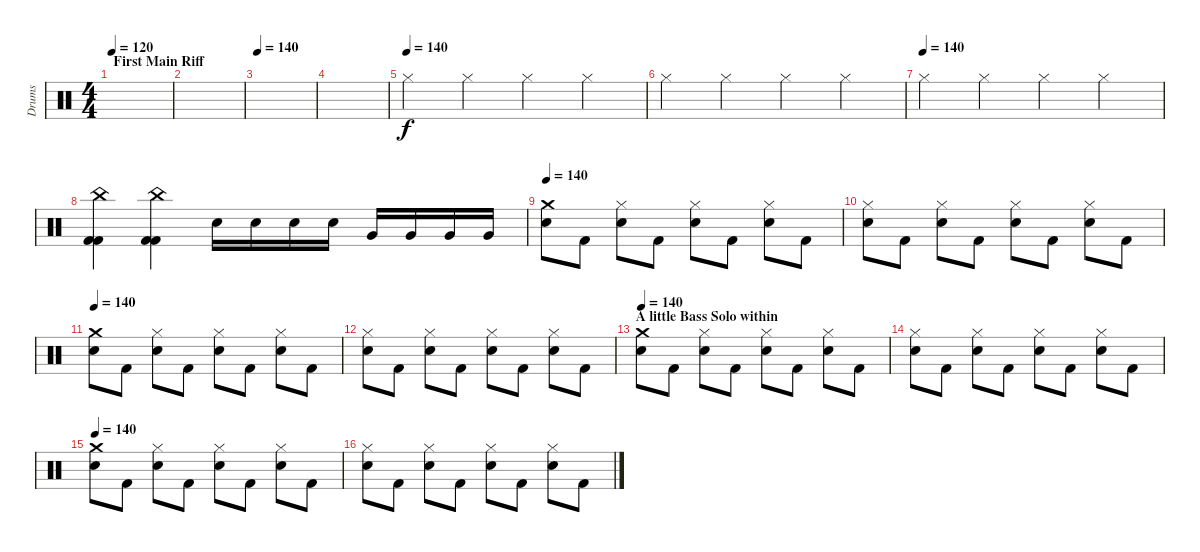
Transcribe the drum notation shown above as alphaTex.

\track ("Drums" "Drums") {instrument percussion}
\staff {score}
\articulation defaults
\ts (4 4)
\section ("" "First Main Riff ")
\tempo 120
\tempo 140
\tempo 120
\clef neutral
\ks c
|
|
\tempo 140
|
|
\tempo (140)
"Hi-Hat (closed)".4 "Hi-Hat (closed)".4 "Hi-Hat (closed)".4 "Hi-Hat (closed)".4 |
"Hi-Hat (closed)".4 "Hi-Hat (closed)".4 "Hi-Hat (closed)".4 "Hi-Hat (closed)".4 |
\tempo (140)
"Hi-Hat (closed)".4 "Hi-Hat (closed)".4 "Hi-Hat (closed)".4 "Hi-Hat (closed)".4 |
("China (hit)" "Kick (hit) 2" "Kick (hit) 2").4 ("Kick (hit) 2" "Kick (hit) 2" "China (hit)").4 "Electric Snare (hit)".16 "Electric Snare (hit)".16 "Electric Snare (hit)".16 "Electric Snare (hit)".16 "Very Low Tom (hit)".16 "Very Low Tom (hit)".16 "Very Low Tom (hit)".16 "Very Low Tom (hit)".16 |
\tempo 140
("Crash medium (hit)" "Electric Snare (hit)").8 "Kick (hit) 2".8 ("Electric Snare (hit)" "Hi-Hat (closed)").8 "Kick (hit) 2".8 ("Electric Snare (hit)" "Hi-Hat (closed)").8 "Kick (hit) 2".8 ("Hi-Hat (closed)" "Electric Snare (hit)").8 "Kick (hit) 2".8 |
("Hi-Hat (closed)" "Electric Snare (hit)").8 "Kick (hit) 2".8 ("Electric Snare (hit)" "Hi-Hat (closed)").8 "Kick (hit) 2".8 ("Electric Snare (hit)" "Hi-Hat (closed)").8 "Kick (hit) 2".8 ("Hi-Hat (closed)" "Electric Snare (hit)").8 "Kick (hit) 2".8 |
\tempo 140
("Crash medium (hit)" "Electric Snare (hit)").8 "Kick (hit) 2".8 ("Electric Snare (hit)" "Hi-Hat (closed)").8 "Kick (hit) 2".8 ("Electric Snare (hit)" "Hi-Hat (closed)").8 "Kick (hit) 2".8 ("Hi-Hat (closed)" "Electric Snare (hit)").8 "Kick (hit) 2".8 |
("Hi-Hat (closed)" "Electric Snare (hit)").8 "Kick (hit) 2".8 ("Electric Snare (hit)" "Hi-Hat (closed)").8 "Kick (hit) 2".8 ("Electric Snare (hit)" "Hi-Hat (closed)").8 "Kick (hit) 2".8 ("Hi-Hat (closed)" "Electric Snare (hit)").8 "Kick (hit) 2".8 |
\section ("" "A little Bass Solo within")
\tempo 140
("Crash medium (hit)" "Electric Snare (hit)").8 "Kick (hit) 2".8 ("Electric Snare (hit)" "Hi-Hat (closed)").8 "Kick (hit) 2".8 ("Electric Snare (hit)" "Hi-Hat (closed)").8 "Kick (hit) 2".8 ("Hi-Hat (closed)" "Electric Snare (hit)").8 "Kick (hit) 2".8 |
("Hi-Hat (closed)" "Electric Snare (hit)").8 "Kick (hit) 2".8 ("Electric Snare (hit)" "Hi-Hat (closed)").8 "Kick (hit) 2".8 ("Electric Snare (hit)" "Hi-Hat (closed)").8 "Kick (hit) 2".8 ("Hi-Hat (closed)" "Electric Snare (hit)").8 "Kick (hit) 2".8 |
\tempo 140
("Crash medium (hit)" "Electric Snare (hit)").8 "Kick (hit) 2".8 ("Electric Snare (hit)" "Hi-Hat (closed)").8 "Kick (hit) 2".8 ("Electric Snare (hit)" "Hi-Hat (closed)").8 "Kick (hit) 2".8 ("Hi-Hat (closed)" "Electric Snare (hit)").8 "Kick (hit) 2".8 |
("Hi-Hat (closed)" "Electric Snare (hit)").8 "Kick (hit) 2".8 ("Electric Snare (hit)" "Hi-Hat (closed)").8 "Kick (hit) 2".8 ("Electric Snare (hit)" "Hi-Hat (closed)").8 "Kick (hit) 2".8 ("Hi-Hat (closed)" "Electric Snare (hit)").8 "Kick (hit) 2".8
